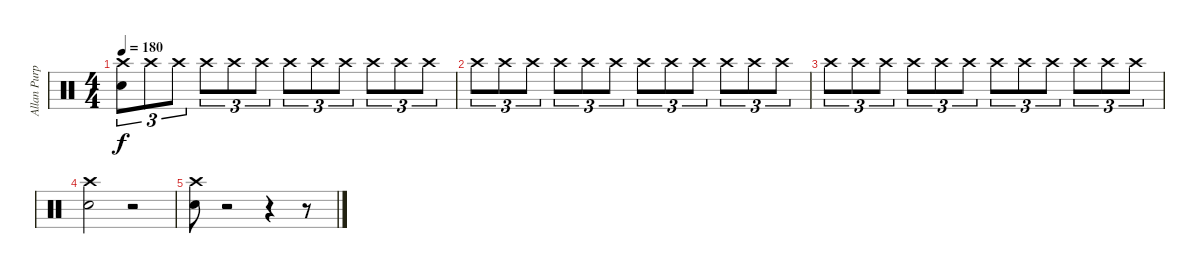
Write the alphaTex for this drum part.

\track ("Allan Purple" "Allan Purp") {instrument percussion}
\staff {score}
\articulation defaults
\ts (4 4)
\tempo 180
\clef neutral
\ks c
("Crash high (hit)" "Electric Snare (hit)").8{tu (3 2) dy f} "Crash high (hit)".8{tu (3 2)} "Crash high (hit)".8{tu (3 2)} "Crash high (hit)".8{tu (3 2)} "Crash high (hit)".8{tu (3 2)} "Crash high (hit)".8{tu (3 2)} "Crash high (hit)".8{tu (3 2)} "Crash high (hit)".8{tu (3 2)} "Crash high (hit)".8{tu (3 2)} "Crash high (hit)".8{tu (3 2)} "Crash high (hit)".8{tu (3 2)} "Crash high (hit)".8{tu (3 2)} |
"Crash high (hit)".8{tu (3 2)} "Crash high (hit)".8{tu (3 2)} "Crash high (hit)".8{tu (3 2)} "Crash high (hit)".8{tu (3 2)} "Crash high (hit)".8{tu (3 2)} "Crash high (hit)".8{tu (3 2)} "Crash high (hit)".8{tu (3 2)} "Crash high (hit)".8{tu (3 2)} "Crash high (hit)".8{tu (3 2)} "Crash high (hit)".8{tu (3 2)} "Crash high (hit)".8{tu (3 2)} "Crash high (hit)".8{tu (3 2)} |
"Crash high (hit)".8{tu (3 2)} "Crash high (hit)".8{tu (3 2)} "Crash high (hit)".8{tu (3 2)} "Crash high (hit)".8{tu (3 2)} "Crash high (hit)".8{tu (3 2)} "Crash high (hit)".8{tu (3 2)} "Crash high (hit)".8{tu (3 2)} "Crash high (hit)".8{tu (3 2)} "Crash high (hit)".8{tu (3 2)} "Crash high (hit)".8{tu (3 2)} "Crash high (hit)".8{tu (3 2)} "Crash high (hit)".8{tu (3 2)} |
("Crash high (hit)" "Electric Snare (hit)").2 r.2 |
("Crash high (hit)" "Electric Snare (hit)").8 r.2 r.4 r.8
